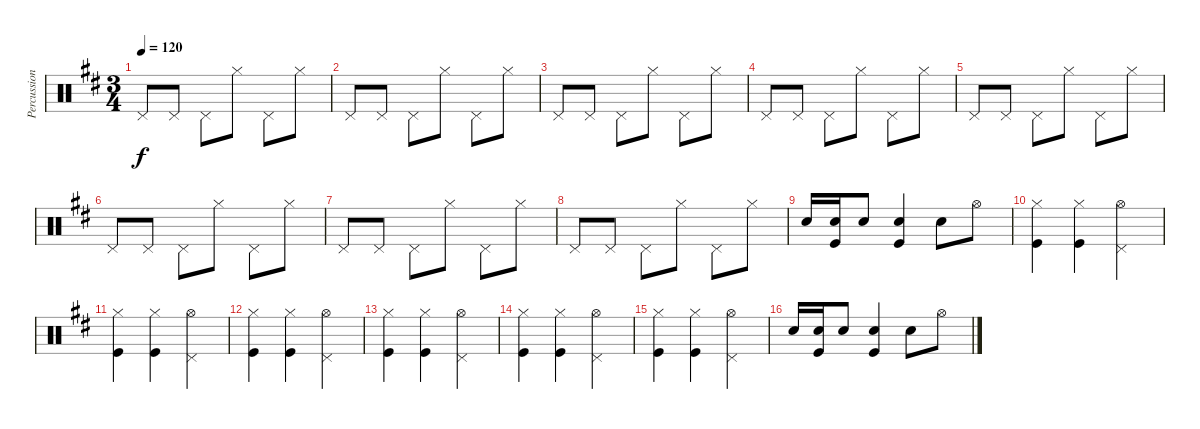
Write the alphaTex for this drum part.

\track ("Percussion" "Percussion") {instrument percussion}
\staff {score}
\articulation defaults
\ts (3 4)
\tempo 120
\clef neutral
\ks bminor "Pedal Hi-Hat (hit)".8{dy f} "Pedal Hi-Hat (hit)".8 "Pedal Hi-Hat (hit)".8 "Hi-Hat (closed)".8 "Pedal Hi-Hat (hit)".8 "Hi-Hat (closed)".8
|
"Pedal Hi-Hat (hit)".8 "Pedal Hi-Hat (hit)".8 "Pedal Hi-Hat (hit)".8 "Hi-Hat (closed)".8 "Pedal Hi-Hat (hit)".8 "Hi-Hat (closed)".8 |
"Pedal Hi-Hat (hit)".8 "Pedal Hi-Hat (hit)".8 "Pedal Hi-Hat (hit)".8 "Hi-Hat (closed)".8 "Pedal Hi-Hat (hit)".8 "Hi-Hat (closed)".8 |
"Pedal Hi-Hat (hit)".8 "Pedal Hi-Hat (hit)".8 "Pedal Hi-Hat (hit)".8 "Hi-Hat (closed)".8 "Pedal Hi-Hat (hit)".8 "Hi-Hat (closed)".8 |
"Pedal Hi-Hat (hit)".8 "Pedal Hi-Hat (hit)".8 "Pedal Hi-Hat (hit)".8 "Hi-Hat (closed)".8 "Pedal Hi-Hat (hit)".8 "Hi-Hat (closed)".8 |
"Pedal Hi-Hat (hit)".8 "Pedal Hi-Hat (hit)".8 "Pedal Hi-Hat (hit)".8 "Hi-Hat (closed)".8 "Pedal Hi-Hat (hit)".8 "Hi-Hat (closed)".8 |
"Pedal Hi-Hat (hit)".8 "Pedal Hi-Hat (hit)".8 "Pedal Hi-Hat (hit)".8 "Hi-Hat (closed)".8 "Pedal Hi-Hat (hit)".8 "Hi-Hat (closed)".8 |
"Pedal Hi-Hat (hit)".8 "Pedal Hi-Hat (hit)".8 "Pedal Hi-Hat (hit)".8 "Hi-Hat (closed)".8 "Pedal Hi-Hat (hit)".8 "Hi-Hat (closed)".8 |
"Snare (hit) 2".16 ("Snare (hit) 2" "Kick (hit)").16 "Snare (hit) 2".8 ("Snare (hit) 2" "Kick (hit)").4 "Snare (hit) 2".8 "Hi-Hat (open)".8 |
("Hi-Hat (closed)" "Kick (hit)").4 ("Hi-Hat (closed)" "Kick (hit)").4 ("Pedal Hi-Hat (hit)" "Hi-Hat (open)").4 |
("Hi-Hat (closed)" "Kick (hit)").4 ("Hi-Hat (closed)" "Kick (hit)").4 ("Pedal Hi-Hat (hit)" "Hi-Hat (open)").4 |
("Hi-Hat (closed)" "Kick (hit)").4 ("Hi-Hat (closed)" "Kick (hit)").4 ("Pedal Hi-Hat (hit)" "Hi-Hat (open)").4 |
("Hi-Hat (closed)" "Kick (hit)").4 ("Hi-Hat (closed)" "Kick (hit)").4 ("Pedal Hi-Hat (hit)" "Hi-Hat (open)").4 |
("Hi-Hat (closed)" "Kick (hit)").4 ("Hi-Hat (closed)" "Kick (hit)").4 ("Pedal Hi-Hat (hit)" "Hi-Hat (open)").4 |
("Hi-Hat (closed)" "Kick (hit)").4 ("Hi-Hat (closed)" "Kick (hit)").4 ("Pedal Hi-Hat (hit)" "Hi-Hat (open)").4 |
"Snare (hit) 2".16 ("Snare (hit) 2" "Kick (hit)").16 "Snare (hit) 2".8 ("Snare (hit) 2" "Kick (hit)").4 "Snare (hit) 2".8 "Hi-Hat (open)".8
